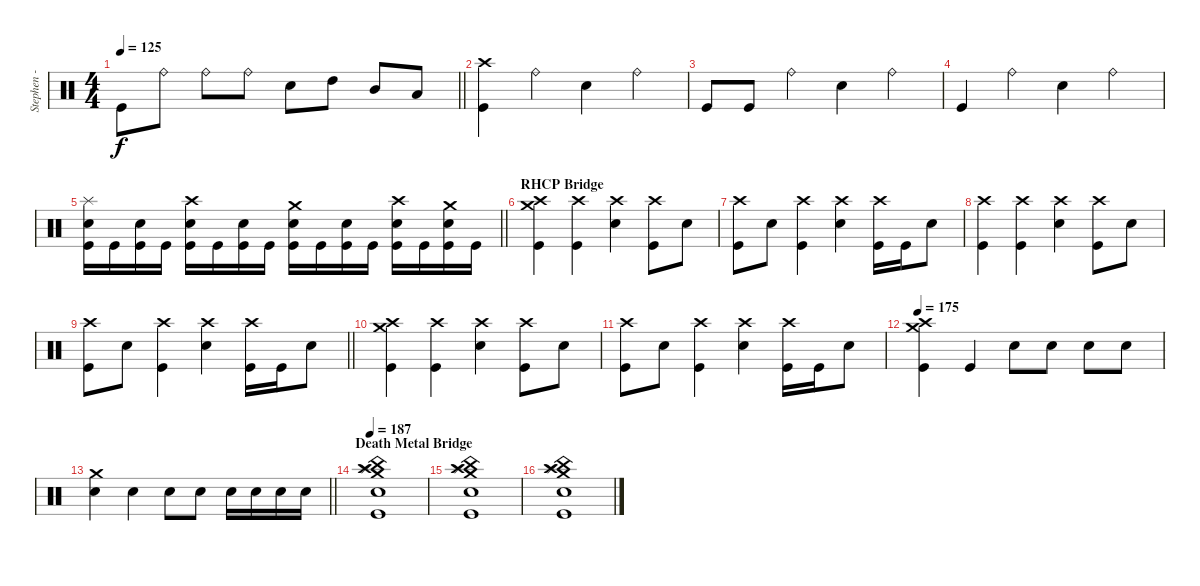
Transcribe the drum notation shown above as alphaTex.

\track ("Stephen - Drums" "Stephen - ") {instrument percussion}
\staff {score}
\articulation defaults
\ts (4 4)
\tempo 125
\clef neutral
\barLineRight lightlight
\ks c "Kick (hit)".8{dy f} "Ride (bell)".8 "Ride (bell)".8 "Ride (bell)".8 "Snare (hit) 2".8 "High Tom (hit)".8 "Mid Tom (hit)".8 "Low Tom (hit)".8
|
("Crash high (hit)" "Kick (hit)").4 "Ride (bell)".4 "Snare (hit) 2".4 "Ride (bell)".4 |
"Kick (hit)".8 "Kick (hit)".8 "Ride (bell)".4 "Snare (hit) 2".4 "Ride (bell)".4 |
"Kick (hit)".4 "Ride (bell)".4 "Snare (hit) 2".4 "Ride (bell)".4 |
\barLineRight lightlight
("Splash (hit)" "Snare (hit) 2" "Kick (hit)").16 "Kick (hit)".16 ("Snare (hit) 2" "Kick (hit)").16 "Kick (hit)".16 ("Crash high (hit)" "Snare (hit) 2" "Kick (hit)").16 "Kick (hit)".16 ("Snare (hit) 2" "Kick (hit)").16 "Kick (hit)".16 ("Crash medium (hit)" "Snare (hit) 2" "Kick (hit)").16 "Kick (hit)".16 ("Snare (hit) 2" "Kick (hit)").16 "Kick (hit)".16 ("Crash high (hit)" "Snare (hit) 2" "Kick (hit)").16 "Kick (hit)".16 ("Crash medium (hit)" "Snare (hit) 2" "Kick (hit)").16 "Kick (hit)".16 |
\section ("" "RHCP Bridge")
("Crash medium (hit)" "Crash high (hit)" "Kick (hit)").4 ("Crash high (hit)" "Kick (hit)").4 ("Crash high (hit)" "Snare (hit) 2").4 ("Crash high (hit)" "Kick (hit)").8 "Snare (hit) 2".8 |
("Crash high (hit)" "Kick (hit)").8 "Snare (hit) 2".8 ("Crash high (hit)" "Kick (hit)").4 ("Crash high (hit)" "Snare (hit) 2").4 ("Crash high (hit)" "Kick (hit)").16 "Kick (hit)".16 "Snare (hit) 2".8 |
("Crash high (hit)" "Kick (hit)").4 ("Crash high (hit)" "Kick (hit)").4 ("Crash high (hit)" "Snare (hit) 2").4 ("Crash high (hit)" "Kick (hit)").8 "Snare (hit) 2".8 |
\barLineRight lightlight
("Crash high (hit)" "Kick (hit)").8 "Snare (hit) 2".8 ("Crash high (hit)" "Kick (hit)").4 ("Crash high (hit)" "Snare (hit) 2").4 ("Crash high (hit)" "Kick (hit)").16 "Kick (hit)".16 "Snare (hit) 2".8 |
("Crash medium (hit)" "Crash high (hit)" "Kick (hit)").4 ("Crash high (hit)" "Kick (hit)").4 ("Crash high (hit)" "Snare (hit) 2").4 ("Crash high (hit)" "Kick (hit)").8 "Snare (hit) 2".8 |
("Crash high (hit)" "Kick (hit)").8 "Snare (hit) 2".8 ("Crash high (hit)" "Kick (hit)").4 ("Crash high (hit)" "Snare (hit) 2").4 ("Crash high (hit)" "Kick (hit)").16 "Kick (hit)".16 "Snare (hit) 2".8 |
\tempo 175
("Crash medium (hit)" "Crash high (hit)" "Kick (hit)").4 "Kick (hit)".4 "Snare (hit) 2".8 "Snare (hit) 2".8 "Snare (hit) 2".8 "Snare (hit) 2".8 |
\barLineRight lightlight
("Crash medium (hit)" "Snare (hit) 2").4 "Snare (hit) 2".4 "Snare (hit) 2".8 "Snare (hit) 2".8 "Snare (hit) 2".16 "Snare (hit) 2".16 "Snare (hit) 2".16 "Snare (hit) 2".16 |
\section ("" "Death Metal Bridge")
\tempo 187
("China (hit)" "Crash medium (hit)" "Crash high (hit)" "Splash (hit)" "Snare (hit) 2" "Kick (hit)").1 |
("China (hit)" "Crash medium (hit)" "Crash high (hit)" "Splash (hit)" "Snare (hit) 2" "Kick (hit)").1 |
("China (hit)" "Crash medium (hit)" "Crash high (hit)" "Splash (hit)" "Snare (hit) 2" "Kick (hit)").1
